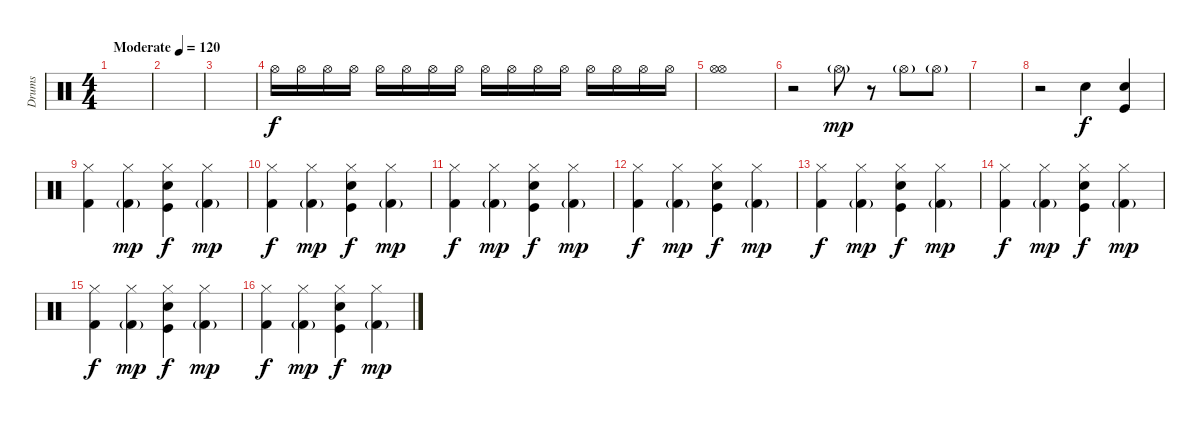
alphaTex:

\track ("Drums" "Drums") {instrument percussion}
\staff {score}
\articulation defaults
\ts (4 4)
\tempo (120 "Moderate")
\clef neutral
\ks c
|
|
|
"Hi-Hat (open)".16{volume 3} "Hi-Hat (open)".16 "Hi-Hat (open)".16 "Hi-Hat (open)".16 "Hi-Hat (open)".16{volume 5} "Hi-Hat (open)".16 "Hi-Hat (open)".16 "Hi-Hat (open)".16 "Hi-Hat (open)".16{volume 7} "Hi-Hat (open)".16 "Hi-Hat (open)".16 "Hi-Hat (open)".16 "Hi-Hat (open)".16{volume 9} "Hi-Hat (open)".16 "Hi-Hat (open)".16 "Hi-Hat (open)".16 |
("Hi-Hat (open)" "Hi-Hat (open)").1{volume 13} |
r.2 "Hi-Hat (open)"{g}.8{dy mp} r.8 "Hi-Hat (open)"{g}.8 "Hi-Hat (open)"{g}.8 |
|
r.2 "Snare (hit) 2".4{dy f} ("Snare (hit) 2" "Kick (hit)").4 |
("Kick (hit) 2" "Hi-Hat (closed)").4 ("Kick (hit) 2"{g} "Hi-Hat (closed)").4{dy mp} ("Kick (hit)" "Snare (hit) 2" "Hi-Hat (closed)").4{dy f} ("Kick (hit) 2"{g} "Hi-Hat (closed)").4{dy mp} |
("Kick (hit) 2" "Hi-Hat (closed)").4{dy f} ("Kick (hit) 2"{g} "Hi-Hat (closed)").4{dy mp} ("Kick (hit)" "Snare (hit) 2" "Hi-Hat (closed)").4{dy f} ("Kick (hit) 2"{g} "Hi-Hat (closed)").4{dy mp} |
("Kick (hit) 2" "Hi-Hat (closed)").4{dy f} ("Kick (hit) 2"{g} "Hi-Hat (closed)").4{dy mp} ("Kick (hit)" "Snare (hit) 2" "Hi-Hat (closed)").4{dy f} ("Kick (hit) 2"{g} "Hi-Hat (closed)").4{dy mp} |
("Kick (hit) 2" "Hi-Hat (closed)").4{dy f} ("Kick (hit) 2"{g} "Hi-Hat (closed)").4{dy mp} ("Kick (hit)" "Snare (hit) 2" "Hi-Hat (closed)").4{dy f} ("Kick (hit) 2"{g} "Hi-Hat (closed)").4{dy mp} |
("Kick (hit) 2" "Hi-Hat (closed)").4{dy f} ("Kick (hit) 2"{g} "Hi-Hat (closed)").4{dy mp} ("Kick (hit)" "Snare (hit) 2" "Hi-Hat (closed)").4{dy f} ("Kick (hit) 2"{g} "Hi-Hat (closed)").4{dy mp} |
("Kick (hit) 2" "Hi-Hat (closed)").4{dy f} ("Kick (hit) 2"{g} "Hi-Hat (closed)").4{dy mp} ("Kick (hit)" "Snare (hit) 2" "Hi-Hat (closed)").4{dy f} ("Kick (hit) 2"{g} "Hi-Hat (closed)").4{dy mp} |
("Kick (hit) 2" "Hi-Hat (closed)").4{dy f} ("Kick (hit) 2"{g} "Hi-Hat (closed)").4{dy mp} ("Kick (hit)" "Snare (hit) 2" "Hi-Hat (closed)").4{dy f} ("Kick (hit) 2"{g} "Hi-Hat (closed)").4{dy mp} |
("Kick (hit) 2" "Hi-Hat (closed)").4{dy f} ("Kick (hit) 2"{g} "Hi-Hat (closed)").4{dy mp} ("Kick (hit)" "Snare (hit) 2" "Hi-Hat (closed)").4{dy f} ("Kick (hit) 2"{g} "Hi-Hat (closed)").4{dy mp}
